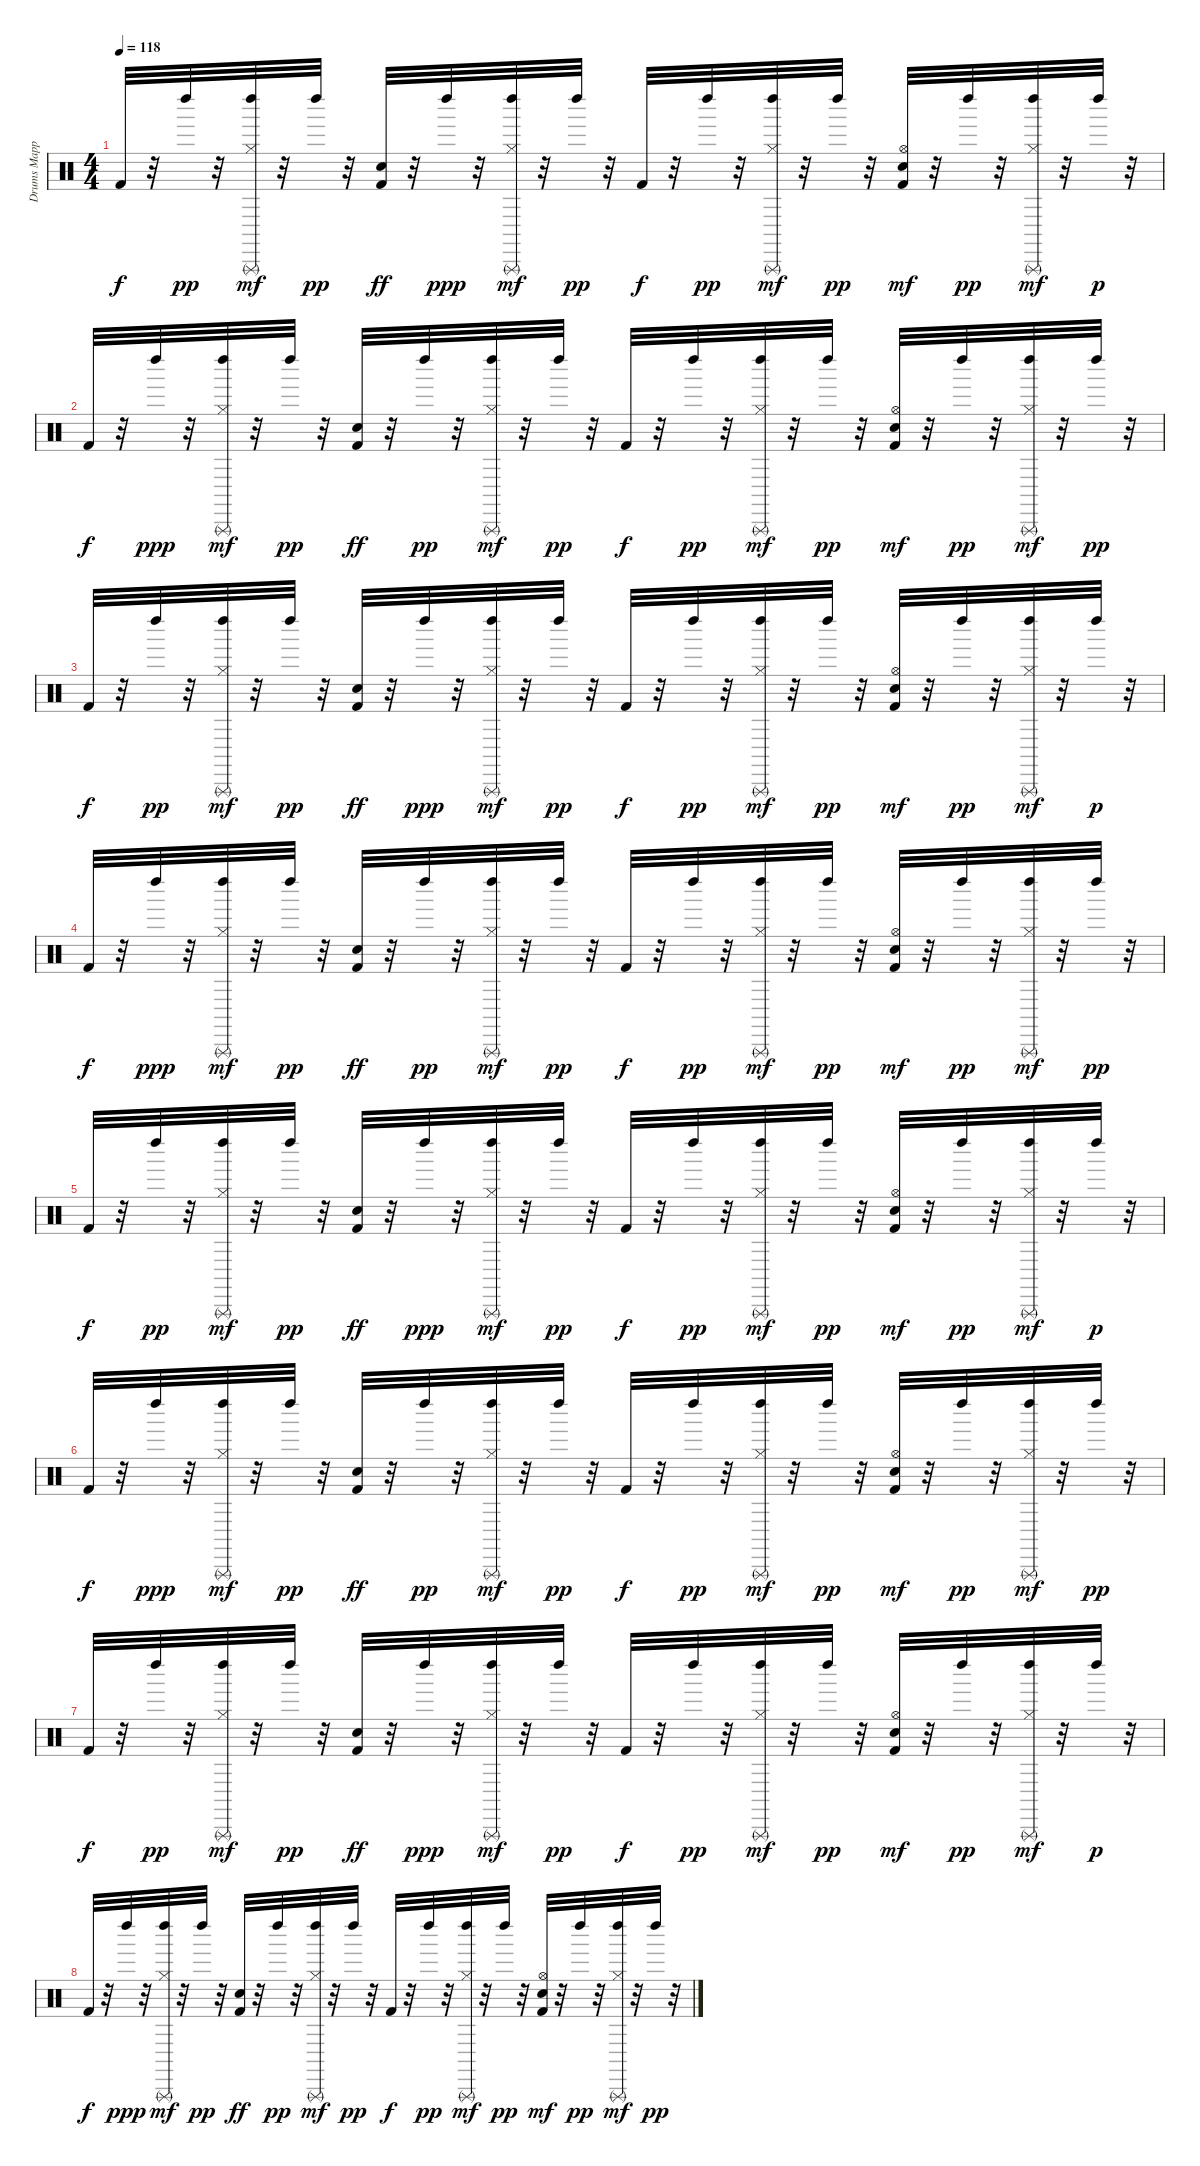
\track ("Drums Mapped*merged" "Drums Mapp") {instrument percussion}
\staff {score}
\articulation defaults
\ts (4 4)
\tempo 118
\clef neutral
\ks c "Kick (hit) 2".32{dy f}
r.32 "Left Maraca (hit)".32{dy pp} r.32 ("Hi-Hat (closed)" "Left Maraca (hit)" "Triangle (rnute)").32{dy mf} r.32 "Left Maraca (hit)".32{dy pp} r.32 ("Kick (hit) 2" "Snare (hit) 2").32{dy ff} r.32 "Left Maraca (hit)".32{dy ppp} r.32 ("Hi-Hat (closed)" "Left Maraca (hit)" "Triangle (rnute)").32{dy mf} r.32 "Left Maraca (hit)".32{dy pp} r.32 "Kick (hit) 2".32{dy f} r.32 "Left Maraca (hit)".32{dy pp} r.32 ("Hi-Hat (closed)" "Left Maraca (hit)" "Triangle (rnute)").32{dy mf} r.32 "Left Maraca (hit)".32{dy pp} r.32 ("Kick (hit) 2" "Snare (hit) 2" "Hi-Hat (open)").32{dy mf} r.32 "Left Maraca (hit)".32{dy pp} r.32 ("Hi-Hat (closed)" "Left Maraca (hit)" "Triangle (rnute)").32{dy mf} r.32 "Left Maraca (hit)".32{dy p} r.32 |
"Kick (hit) 2".32{dy f} r.32 "Left Maraca (hit)".32{dy ppp} r.32 ("Hi-Hat (closed)" "Left Maraca (hit)" "Triangle (rnute)").32{dy mf} r.32 "Left Maraca (hit)".32{dy pp} r.32 ("Kick (hit) 2" "Snare (hit) 2").32{dy ff} r.32 "Left Maraca (hit)".32{dy pp} r.32 ("Hi-Hat (closed)" "Left Maraca (hit)" "Triangle (rnute)").32{dy mf} r.32 "Left Maraca (hit)".32{dy pp} r.32 "Kick (hit) 2".32{dy f} r.32 "Left Maraca (hit)".32{dy pp} r.32 ("Hi-Hat (closed)" "Left Maraca (hit)" "Triangle (rnute)").32{dy mf} r.32 "Left Maraca (hit)".32{dy pp} r.32 ("Kick (hit) 2" "Snare (hit) 2" "Hi-Hat (open)").32{dy mf} r.32 "Left Maraca (hit)".32{dy pp} r.32 ("Hi-Hat (closed)" "Left Maraca (hit)" "Triangle (rnute)").32{dy mf} r.32 "Left Maraca (hit)".32{dy pp} r.32 |
"Kick (hit) 2".32{dy f} r.32 "Left Maraca (hit)".32{dy pp} r.32 ("Hi-Hat (closed)" "Left Maraca (hit)" "Triangle (rnute)").32{dy mf} r.32 "Left Maraca (hit)".32{dy pp} r.32 ("Kick (hit) 2" "Snare (hit) 2").32{dy ff} r.32 "Left Maraca (hit)".32{dy ppp} r.32 ("Hi-Hat (closed)" "Left Maraca (hit)" "Triangle (rnute)").32{dy mf} r.32 "Left Maraca (hit)".32{dy pp} r.32 "Kick (hit) 2".32{dy f} r.32 "Left Maraca (hit)".32{dy pp} r.32 ("Hi-Hat (closed)" "Left Maraca (hit)" "Triangle (rnute)").32{dy mf} r.32 "Left Maraca (hit)".32{dy pp} r.32 ("Kick (hit) 2" "Snare (hit) 2" "Hi-Hat (open)").32{dy mf} r.32 "Left Maraca (hit)".32{dy pp} r.32 ("Hi-Hat (closed)" "Left Maraca (hit)" "Triangle (rnute)").32{dy mf} r.32 "Left Maraca (hit)".32{dy p} r.32 |
"Kick (hit) 2".32{dy f} r.32 "Left Maraca (hit)".32{dy ppp} r.32 ("Hi-Hat (closed)" "Left Maraca (hit)" "Triangle (rnute)").32{dy mf} r.32 "Left Maraca (hit)".32{dy pp} r.32 ("Kick (hit) 2" "Snare (hit) 2").32{dy ff} r.32 "Left Maraca (hit)".32{dy pp} r.32 ("Hi-Hat (closed)" "Left Maraca (hit)" "Triangle (rnute)").32{dy mf} r.32 "Left Maraca (hit)".32{dy pp} r.32 "Kick (hit) 2".32{dy f} r.32 "Left Maraca (hit)".32{dy pp} r.32 ("Hi-Hat (closed)" "Left Maraca (hit)" "Triangle (rnute)").32{dy mf} r.32 "Left Maraca (hit)".32{dy pp} r.32 ("Kick (hit) 2" "Snare (hit) 2" "Hi-Hat (open)").32{dy mf} r.32 "Left Maraca (hit)".32{dy pp} r.32 ("Hi-Hat (closed)" "Left Maraca (hit)" "Triangle (rnute)").32{dy mf} r.32 "Left Maraca (hit)".32{dy pp} r.32 |
"Kick (hit) 2".32{dy f} r.32 "Left Maraca (hit)".32{dy pp} r.32 ("Hi-Hat (closed)" "Left Maraca (hit)" "Triangle (rnute)").32{dy mf} r.32 "Left Maraca (hit)".32{dy pp} r.32 ("Kick (hit) 2" "Snare (hit) 2").32{dy ff} r.32 "Left Maraca (hit)".32{dy ppp} r.32 ("Hi-Hat (closed)" "Left Maraca (hit)" "Triangle (rnute)").32{dy mf} r.32 "Left Maraca (hit)".32{dy pp} r.32 "Kick (hit) 2".32{dy f} r.32 "Left Maraca (hit)".32{dy pp} r.32 ("Hi-Hat (closed)" "Left Maraca (hit)" "Triangle (rnute)").32{dy mf} r.32 "Left Maraca (hit)".32{dy pp} r.32 ("Kick (hit) 2" "Snare (hit) 2" "Hi-Hat (open)").32{dy mf} r.32 "Left Maraca (hit)".32{dy pp} r.32 ("Hi-Hat (closed)" "Left Maraca (hit)" "Triangle (rnute)").32{dy mf} r.32 "Left Maraca (hit)".32{dy p} r.32 |
"Kick (hit) 2".32{dy f} r.32 "Left Maraca (hit)".32{dy ppp} r.32 ("Hi-Hat (closed)" "Left Maraca (hit)" "Triangle (rnute)").32{dy mf} r.32 "Left Maraca (hit)".32{dy pp} r.32 ("Kick (hit) 2" "Snare (hit) 2").32{dy ff} r.32 "Left Maraca (hit)".32{dy pp} r.32 ("Hi-Hat (closed)" "Left Maraca (hit)" "Triangle (rnute)").32{dy mf} r.32 "Left Maraca (hit)".32{dy pp} r.32 "Kick (hit) 2".32{dy f} r.32 "Left Maraca (hit)".32{dy pp} r.32 ("Hi-Hat (closed)" "Left Maraca (hit)" "Triangle (rnute)").32{dy mf} r.32 "Left Maraca (hit)".32{dy pp} r.32 ("Kick (hit) 2" "Snare (hit) 2" "Hi-Hat (open)").32{dy mf} r.32 "Left Maraca (hit)".32{dy pp} r.32 ("Hi-Hat (closed)" "Left Maraca (hit)" "Triangle (rnute)").32{dy mf} r.32 "Left Maraca (hit)".32{dy pp} r.32 |
"Kick (hit) 2".32{dy f} r.32 "Left Maraca (hit)".32{dy pp} r.32 ("Hi-Hat (closed)" "Left Maraca (hit)" "Triangle (rnute)").32{dy mf} r.32 "Left Maraca (hit)".32{dy pp} r.32 ("Kick (hit) 2" "Snare (hit) 2").32{dy ff} r.32 "Left Maraca (hit)".32{dy ppp} r.32 ("Hi-Hat (closed)" "Left Maraca (hit)" "Triangle (rnute)").32{dy mf} r.32 "Left Maraca (hit)".32{dy pp} r.32 "Kick (hit) 2".32{dy f} r.32 "Left Maraca (hit)".32{dy pp} r.32 ("Hi-Hat (closed)" "Left Maraca (hit)" "Triangle (rnute)").32{dy mf} r.32 "Left Maraca (hit)".32{dy pp} r.32 ("Kick (hit) 2" "Snare (hit) 2" "Hi-Hat (open)").32{dy mf} r.32 "Left Maraca (hit)".32{dy pp} r.32 ("Hi-Hat (closed)" "Left Maraca (hit)" "Triangle (rnute)").32{dy mf} r.32 "Left Maraca (hit)".32{dy p} r.32 |
"Kick (hit) 2".32{dy f} r.32 "Left Maraca (hit)".32{dy ppp} r.32 ("Hi-Hat (closed)" "Left Maraca (hit)" "Triangle (rnute)").32{dy mf} r.32 "Left Maraca (hit)".32{dy pp} r.32 ("Kick (hit) 2" "Snare (hit) 2").32{dy ff} r.32 "Left Maraca (hit)".32{dy pp} r.32 ("Hi-Hat (closed)" "Left Maraca (hit)" "Triangle (rnute)").32{dy mf} r.32 "Left Maraca (hit)".32{dy pp} r.32 "Kick (hit) 2".32{dy f} r.32 "Left Maraca (hit)".32{dy pp} r.32 ("Hi-Hat (closed)" "Left Maraca (hit)" "Triangle (rnute)").32{dy mf} r.32 "Left Maraca (hit)".32{dy pp} r.32 ("Kick (hit) 2" "Snare (hit) 2" "Hi-Hat (open)").32{dy mf} r.32 "Left Maraca (hit)".32{dy pp} r.32 ("Hi-Hat (closed)" "Left Maraca (hit)" "Triangle (rnute)").32{dy mf} r.32 "Left Maraca (hit)".32{dy pp} r.32
